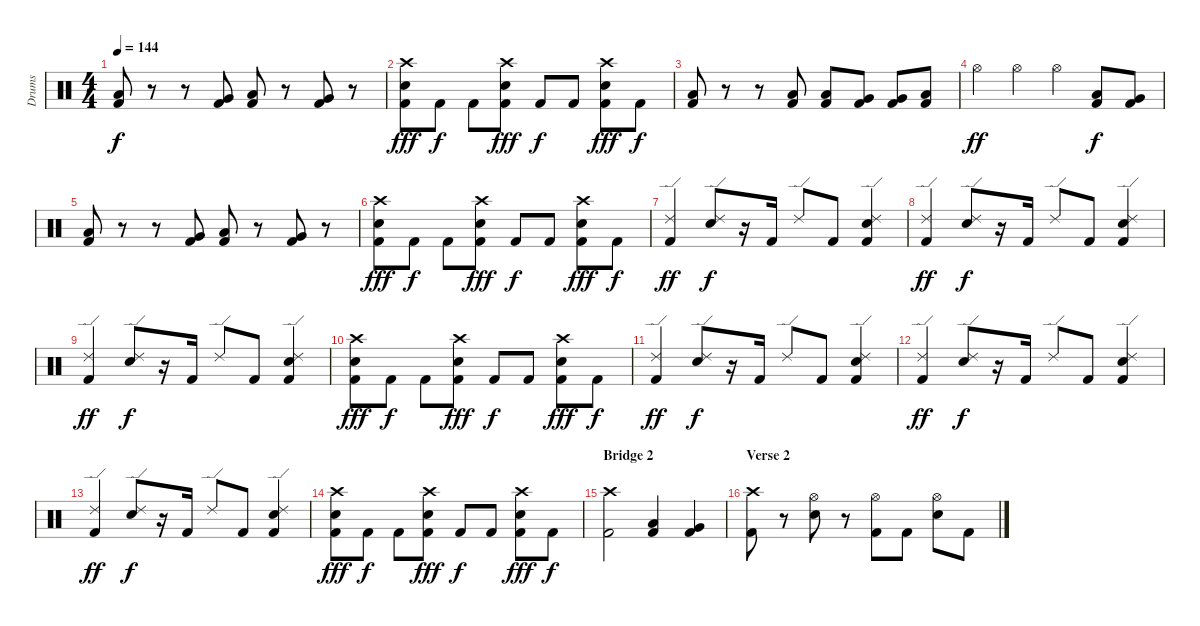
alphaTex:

\track ("Drums" "Drums") {instrument percussion}
\staff {score}
\articulation defaults
\ts (4 4)
\tempo 144
\clef neutral
\ks c
("Kick (hit) 2" "Low Floor Tom (hit)").8{dy f} r.8 r.8 ("Kick (hit) 2" "Very Low Tom (hit)").8 ("Kick (hit) 2" "Low Tom (hit)").8 r.8 ("Kick (hit) 2" "Very Low Tom (hit)").8 r.8 |
("Kick (hit) 2" "Electric Snare (hit)" "Crash high (hit)").8{dy fff} "Kick (hit) 2".8{dy f} "Kick (hit) 2".8 ("Kick (hit) 2" "Electric Snare (hit)" "Crash high (hit)").8{dy fff} "Kick (hit) 2".8{dy f} "Kick (hit) 2".8 ("Kick (hit) 2" "Electric Snare (hit)" "Crash high (hit)").8{dy fff} "Kick (hit) 2".8{dy f} |
("Kick (hit) 2" "Low Tom (hit)").8 r.8 r.8 ("Kick (hit) 2" "Low Tom (hit)").8 ("Kick (hit) 2" "Low Tom (hit)").8 ("Kick (hit) 2" "Very Low Tom (hit)").8 ("Kick (hit) 2" "Very Low Tom (hit)").8 ("Kick (hit) 2" "Low Floor Tom (hit)").8 |
"Hi-Hat (open)".4{dy ff} "Hi-Hat (open)".4 "Hi-Hat (open)".4 ("Kick (hit) 2" "Low Tom (hit)").8{dy f} ("Kick (hit) 2" "Very Low Tom (hit)").8 |
("Kick (hit) 2" "Low Floor Tom (hit)").8 r.8 r.8 ("Kick (hit) 2" "Very Low Tom (hit)").8 ("Kick (hit) 2" "Low Tom (hit)").8 r.8 ("Kick (hit) 2" "Very Low Tom (hit)").8 r.8 |
("Kick (hit) 2" "Electric Snare (hit)" "Crash high (hit)").8{dy fff} "Kick (hit) 2".8{dy f} "Kick (hit) 2".8 ("Kick (hit) 2" "Electric Snare (hit)" "Crash high (hit)").8{dy fff} "Kick (hit) 2".8{dy f} "Kick (hit) 2".8 ("Kick (hit) 2" "Electric Snare (hit)" "Crash high (hit)").8{dy fff} "Kick (hit) 2".8{dy f} |
("Kick (hit) 2" "Ride (edge) 2").4{dy ff} ("Ride (edge) 2" "Electric Snare (hit)").8{dy f} r.16 "Kick (hit) 2".16 "Ride (edge) 2".8 "Kick (hit) 2".8 ("Kick (hit) 2" "Ride (edge) 2" "Electric Snare (hit)").4 |
("Kick (hit) 2" "Ride (edge) 2").4{dy ff} ("Ride (edge) 2" "Electric Snare (hit)").8{dy f} r.16 "Kick (hit) 2".16 "Ride (edge) 2".8 "Kick (hit) 2".8 ("Kick (hit) 2" "Ride (edge) 2" "Electric Snare (hit)").4 |
("Kick (hit) 2" "Ride (edge) 2").4{dy ff} ("Ride (edge) 2" "Electric Snare (hit)").8{dy f} r.16 "Kick (hit) 2".16 "Ride (edge) 2".8 "Kick (hit) 2".8 ("Kick (hit) 2" "Ride (edge) 2" "Electric Snare (hit)").4 |
("Kick (hit) 2" "Electric Snare (hit)" "Crash high (hit)").8{dy fff} "Kick (hit) 2".8{dy f} "Kick (hit) 2".8 ("Kick (hit) 2" "Electric Snare (hit)" "Crash high (hit)").8{dy fff} "Kick (hit) 2".8{dy f} "Kick (hit) 2".8 ("Kick (hit) 2" "Electric Snare (hit)" "Crash high (hit)").8{dy fff} "Kick (hit) 2".8{dy f} |
("Kick (hit) 2" "Ride (edge) 2").4{dy ff} ("Ride (edge) 2" "Electric Snare (hit)").8{dy f} r.16 "Kick (hit) 2".16 "Ride (edge) 2".8 "Kick (hit) 2".8 ("Kick (hit) 2" "Ride (edge) 2" "Electric Snare (hit)").4 |
("Kick (hit) 2" "Ride (edge) 2").4{dy ff} ("Ride (edge) 2" "Electric Snare (hit)").8{dy f} r.16 "Kick (hit) 2".16 "Ride (edge) 2".8 "Kick (hit) 2".8 ("Kick (hit) 2" "Ride (edge) 2" "Electric Snare (hit)").4 |
("Kick (hit) 2" "Ride (edge) 2").4{dy ff} ("Ride (edge) 2" "Electric Snare (hit)").8{dy f} r.16 "Kick (hit) 2".16 "Ride (edge) 2".8 "Kick (hit) 2".8 ("Kick (hit) 2" "Ride (edge) 2" "Electric Snare (hit)").4 |
("Kick (hit) 2" "Electric Snare (hit)" "Crash high (hit)").8{dy fff} "Kick (hit) 2".8{dy f} "Kick (hit) 2".8 ("Kick (hit) 2" "Electric Snare (hit)" "Crash high (hit)").8{dy fff} "Kick (hit) 2".8{dy f} "Kick (hit) 2".8 ("Kick (hit) 2" "Electric Snare (hit)" "Crash high (hit)").8{dy fff} "Kick (hit) 2".8{dy f} |
\section ("" "Bridge 2")
("Kick (hit) 2" "Crash high (hit)").2 ("Kick (hit) 2" "Low Tom (hit)").4 ("Kick (hit) 2" "Very Low Tom (hit)").4 |
\section ("" "Verse 2")
("Kick (hit) 2" "Crash high (hit)").8 r.8 ("Hi-Hat (open)" "Electric Snare (hit)").8 r.8 ("Kick (hit) 2" "Hi-Hat (open)").8 "Kick (hit) 2".8 ("Hi-Hat (open)" "Electric Snare (hit)").8 "Kick (hit) 2".8
